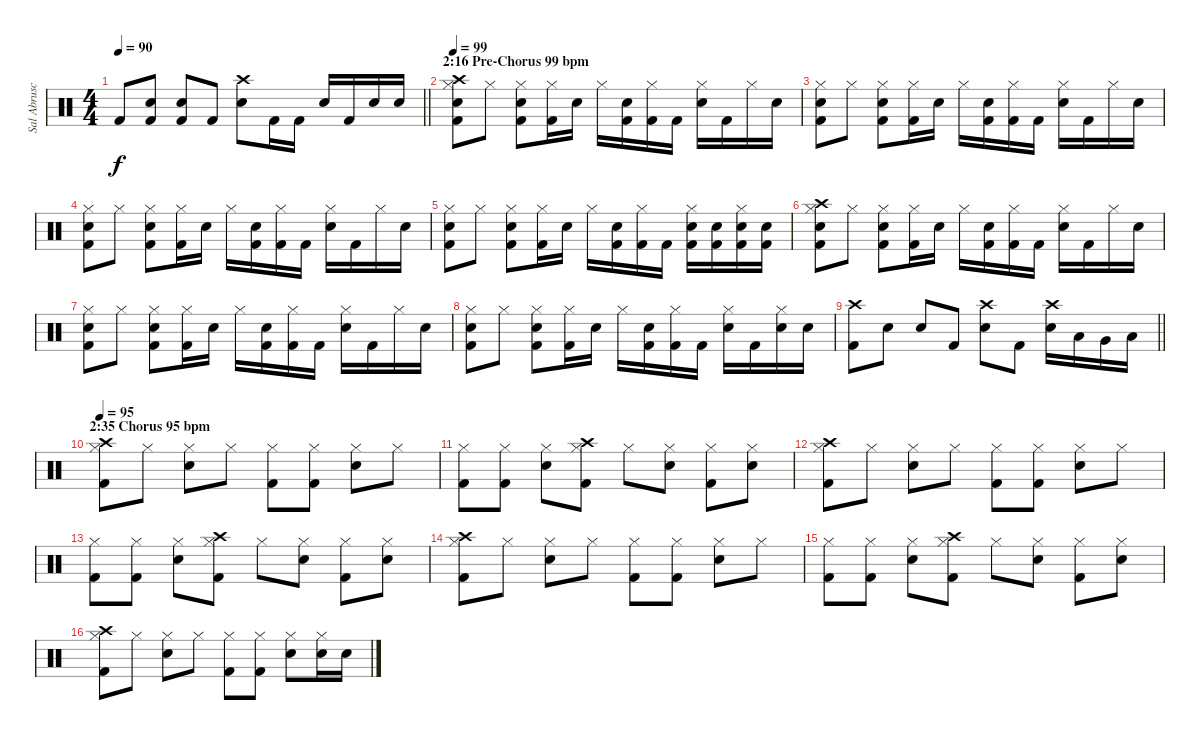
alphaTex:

\track ("Sal Abruscato (Drums)" "Sal Abrusc") {instrument percussion}
\staff {score}
\articulation defaults
\ts (4 4)
\tempo 90
\clef neutral
\barLineRight lightlight
\ks c "Kick (hit) 2".8{dy f}
("Electric Snare (hit)" "Kick (hit) 2").8 ("Electric Snare (hit)" "Kick (hit) 2").8 "Kick (hit) 2".8 ("Crash high (hit)" "Electric Snare (hit)").8 "Kick (hit) 2".16 "Kick (hit) 2".16 "Electric Snare (hit)".16 "Kick (hit) 2".16 "Electric Snare (hit)".16 "Electric Snare (hit)".16 |
\section ("" "2:16 Pre-Chorus 99 bpm")
\tempo 99
("Hi-Hat (closed)" "Kick (hit) 2" "Crash high (hit)" "Electric Snare (hit)").8 "Hi-Hat (closed)".8 ("Hi-Hat (closed)" "Kick (hit) 2" "Electric Snare (hit)").8 ("Hi-Hat (closed)" "Kick (hit) 2").16 "Electric Snare (hit)".16 "Hi-Hat (closed)".16 ("Electric Snare (hit)" "Kick (hit) 2").16 ("Hi-Hat (closed)" "Kick (hit) 2").16 "Kick (hit) 2".16 ("Hi-Hat (closed)" "Electric Snare (hit)").16 "Kick (hit) 2".16 "Hi-Hat (closed)".16 "Electric Snare (hit)".16 |
("Hi-Hat (closed)" "Kick (hit) 2" "Electric Snare (hit)").8 "Hi-Hat (closed)".8 ("Hi-Hat (closed)" "Kick (hit) 2" "Electric Snare (hit)").8 ("Hi-Hat (closed)" "Kick (hit) 2").16 "Electric Snare (hit)".16 "Hi-Hat (closed)".16 ("Electric Snare (hit)" "Kick (hit) 2").16 ("Hi-Hat (closed)" "Kick (hit) 2").16 "Kick (hit) 2".16 ("Hi-Hat (closed)" "Electric Snare (hit)").16 "Kick (hit) 2".16 "Hi-Hat (closed)".16 "Electric Snare (hit)".16 |
("Hi-Hat (closed)" "Kick (hit) 2" "Electric Snare (hit)").8 "Hi-Hat (closed)".8 ("Hi-Hat (closed)" "Kick (hit) 2" "Electric Snare (hit)").8 ("Hi-Hat (closed)" "Kick (hit) 2").16 "Electric Snare (hit)".16 "Hi-Hat (closed)".16 ("Electric Snare (hit)" "Kick (hit) 2").16 ("Hi-Hat (closed)" "Kick (hit) 2").16 "Kick (hit) 2".16 ("Hi-Hat (closed)" "Electric Snare (hit)").16 "Kick (hit) 2".16 "Hi-Hat (closed)".16 "Electric Snare (hit)".16 |
("Hi-Hat (closed)" "Kick (hit) 2" "Electric Snare (hit)").8 "Hi-Hat (closed)".8 ("Hi-Hat (closed)" "Kick (hit) 2" "Electric Snare (hit)").8 ("Hi-Hat (closed)" "Kick (hit) 2").16 "Electric Snare (hit)".16 "Hi-Hat (closed)".16 ("Electric Snare (hit)" "Kick (hit) 2").16 ("Hi-Hat (closed)" "Kick (hit) 2").16 "Kick (hit) 2".16 ("Kick (hit) 2" "Hi-Hat (closed)" "Electric Snare (hit)").16 ("Electric Snare (hit)" "Kick (hit) 2").16 ("Kick (hit) 2" "Hi-Hat (closed)" "Electric Snare (hit)").16 ("Kick (hit) 2" "Electric Snare (hit)").16 |
("Hi-Hat (closed)" "Kick (hit) 2" "Crash high (hit)" "Electric Snare (hit)").8 "Hi-Hat (closed)".8 ("Hi-Hat (closed)" "Kick (hit) 2" "Electric Snare (hit)").8 ("Hi-Hat (closed)" "Kick (hit) 2").16 "Electric Snare (hit)".16 "Hi-Hat (closed)".16 ("Electric Snare (hit)" "Kick (hit) 2").16 ("Hi-Hat (closed)" "Kick (hit) 2").16 "Kick (hit) 2".16 ("Hi-Hat (closed)" "Electric Snare (hit)").16 "Kick (hit) 2".16 "Hi-Hat (closed)".16 "Electric Snare (hit)".16 |
("Hi-Hat (closed)" "Kick (hit) 2" "Electric Snare (hit)").8 "Hi-Hat (closed)".8 ("Hi-Hat (closed)" "Kick (hit) 2" "Electric Snare (hit)").8 ("Hi-Hat (closed)" "Kick (hit) 2").16 "Electric Snare (hit)".16 "Hi-Hat (closed)".16 ("Electric Snare (hit)" "Kick (hit) 2").16 ("Hi-Hat (closed)" "Kick (hit) 2").16 "Kick (hit) 2".16 ("Hi-Hat (closed)" "Electric Snare (hit)").16 "Kick (hit) 2".16 "Hi-Hat (closed)".16 "Electric Snare (hit)".16 |
("Hi-Hat (closed)" "Kick (hit) 2" "Electric Snare (hit)").8 "Hi-Hat (closed)".8 ("Hi-Hat (closed)" "Kick (hit) 2" "Electric Snare (hit)").8 ("Hi-Hat (closed)" "Kick (hit) 2").16 "Electric Snare (hit)".16 "Hi-Hat (closed)".16 ("Electric Snare (hit)" "Kick (hit) 2").16 ("Hi-Hat (closed)" "Kick (hit) 2").16 "Kick (hit) 2".16 ("Hi-Hat (closed)" "Electric Snare (hit)").16 "Kick (hit) 2".16 ("Hi-Hat (closed)" "Electric Snare (hit)").16 "Electric Snare (hit)".16 |
\barLineRight lightlight
("Crash high (hit)" "Kick (hit) 2").8 "Electric Snare (hit)".8 "Electric Snare (hit)".8 "Kick (hit) 2".8 ("Crash high (hit)" "Electric Snare (hit)").8 "Kick (hit) 2".8 ("Crash high (hit)" "Electric Snare (hit)").16 "Low Tom (hit)".16 "Very Low Tom (hit)".16 "Low Floor Tom (hit)".16 |
\section ("" "2:35 Chorus 95 bpm")
\tempo 95
("Crash high (hit)" "Hi-Hat (closed)" "Kick (hit) 2").8 "Hi-Hat (closed)".8 ("Hi-Hat (closed)" "Electric Snare (hit)").8 "Hi-Hat (closed)".8 ("Hi-Hat (closed)" "Kick (hit) 2").8 ("Hi-Hat (closed)" "Kick (hit) 2").8 ("Hi-Hat (closed)" "Electric Snare (hit)").8 "Hi-Hat (closed)".8 |
("Hi-Hat (closed)" "Kick (hit) 2").8 ("Hi-Hat (closed)" "Kick (hit) 2").8 ("Hi-Hat (closed)" "Electric Snare (hit)").8 ("Crash high (hit)" "Hi-Hat (closed)" "Kick (hit) 2").8 "Hi-Hat (closed)".8 ("Hi-Hat (closed)" "Electric Snare (hit)").8 ("Hi-Hat (closed)" "Kick (hit) 2").8 ("Hi-Hat (closed)" "Electric Snare (hit)").8 |
("Crash high (hit)" "Hi-Hat (closed)" "Kick (hit) 2").8 "Hi-Hat (closed)".8 ("Hi-Hat (closed)" "Electric Snare (hit)").8 "Hi-Hat (closed)".8 ("Hi-Hat (closed)" "Kick (hit) 2").8 ("Hi-Hat (closed)" "Kick (hit) 2").8 ("Hi-Hat (closed)" "Electric Snare (hit)").8 "Hi-Hat (closed)".8 |
("Hi-Hat (closed)" "Kick (hit) 2").8 ("Hi-Hat (closed)" "Kick (hit) 2").8 ("Hi-Hat (closed)" "Electric Snare (hit)").8 ("Crash high (hit)" "Hi-Hat (closed)" "Kick (hit) 2").8 "Hi-Hat (closed)".8 ("Hi-Hat (closed)" "Electric Snare (hit)").8 ("Hi-Hat (closed)" "Kick (hit) 2").8 ("Hi-Hat (closed)" "Electric Snare (hit)").8 |
("Crash high (hit)" "Hi-Hat (closed)" "Kick (hit) 2").8 "Hi-Hat (closed)".8 ("Hi-Hat (closed)" "Electric Snare (hit)").8 "Hi-Hat (closed)".8 ("Hi-Hat (closed)" "Kick (hit) 2").8 ("Hi-Hat (closed)" "Kick (hit) 2").8 ("Hi-Hat (closed)" "Electric Snare (hit)").8 "Hi-Hat (closed)".8 |
("Hi-Hat (closed)" "Kick (hit) 2").8 ("Hi-Hat (closed)" "Kick (hit) 2").8 ("Hi-Hat (closed)" "Electric Snare (hit)").8 ("Crash high (hit)" "Hi-Hat (closed)" "Kick (hit) 2").8 "Hi-Hat (closed)".8 ("Hi-Hat (closed)" "Electric Snare (hit)").8 ("Hi-Hat (closed)" "Kick (hit) 2").8 ("Hi-Hat (closed)" "Electric Snare (hit)").8 |
("Crash high (hit)" "Hi-Hat (closed)" "Kick (hit) 2").8 "Hi-Hat (closed)".8 ("Hi-Hat (closed)" "Electric Snare (hit)").8 "Hi-Hat (closed)".8 ("Hi-Hat (closed)" "Kick (hit) 2").8 ("Hi-Hat (closed)" "Kick (hit) 2").8 ("Hi-Hat (closed)" "Electric Snare (hit)").8 ("Electric Snare (hit)" "Hi-Hat (closed)").16 "Electric Snare (hit)".16
